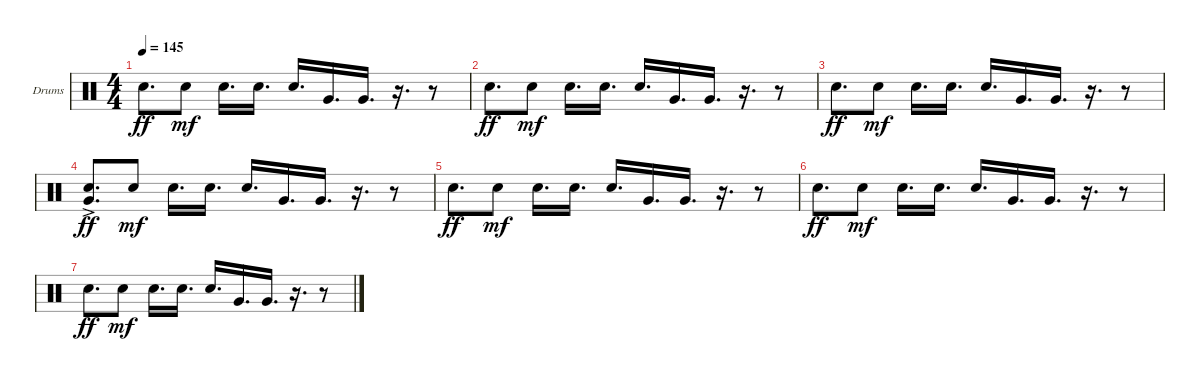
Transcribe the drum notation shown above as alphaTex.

\defaultSystemsLayout 4
\bracketExtendMode groupsimilarinstruments
\firstSystemTrackNameOrientation horizontal
\otherSystemsTrackNameOrientation horizontal
\track ("Drumkit" "Drums") {instrument percussion}
\staff {score}
\articulation defaults
\ts (4 4)
\tempo 145
\clef neutral
\ks c "Snare (hit) 2".8{d dy ff} "Snare (hit) 2".8{dy mf} "Snare (hit) 2".16{d} "Snare (hit) 2".16{d} "Snare (hit) 2".16{d} "Very Low Tom (hit)".16{d} "Very Low Tom (hit)".16{d}
r.16{d} r.8 |
"Snare (hit) 2".8{d dy ff} "Snare (hit) 2".8{dy mf} "Snare (hit) 2".16{d} "Snare (hit) 2".16{d} "Snare (hit) 2".16{d} "Very Low Tom (hit)".16{d} "Very Low Tom (hit)".16{d} r.16{d} r.8 |
"Snare (hit) 2".8{d dy ff} "Snare (hit) 2".8{dy mf} "Snare (hit) 2".16{d} "Snare (hit) 2".16{d} "Snare (hit) 2".16{d} "Very Low Tom (hit)".16{d} "Very Low Tom (hit)".16{d} r.16{d} r.8 |
("Snare (hit) 2" "Very Low Tom (hit)"{ac}).8{d dy ff} "Snare (hit) 2".8{dy mf} "Snare (hit) 2".16{d} "Snare (hit) 2".16{d} "Snare (hit) 2".16{d} "Very Low Tom (hit)".16{d} "Very Low Tom (hit)".16{d} r.16{d} r.8 |
"Snare (hit) 2".8{d dy ff} "Snare (hit) 2".8{dy mf} "Snare (hit) 2".16{d} "Snare (hit) 2".16{d} "Snare (hit) 2".16{d} "Very Low Tom (hit)".16{d} "Very Low Tom (hit)".16{d} r.16{d} r.8 |
"Snare (hit) 2".8{d dy ff} "Snare (hit) 2".8{dy mf} "Snare (hit) 2".16{d} "Snare (hit) 2".16{d} "Snare (hit) 2".16{d} "Very Low Tom (hit)".16{d} "Very Low Tom (hit)".16{d} r.16{d} r.8 |
"Snare (hit) 2".8{d dy ff} "Snare (hit) 2".8{dy mf} "Snare (hit) 2".16{d} "Snare (hit) 2".16{d} "Snare (hit) 2".16{d} "Very Low Tom (hit)".16{d} "Very Low Tom (hit)".16{d} r.16{d} r.8
